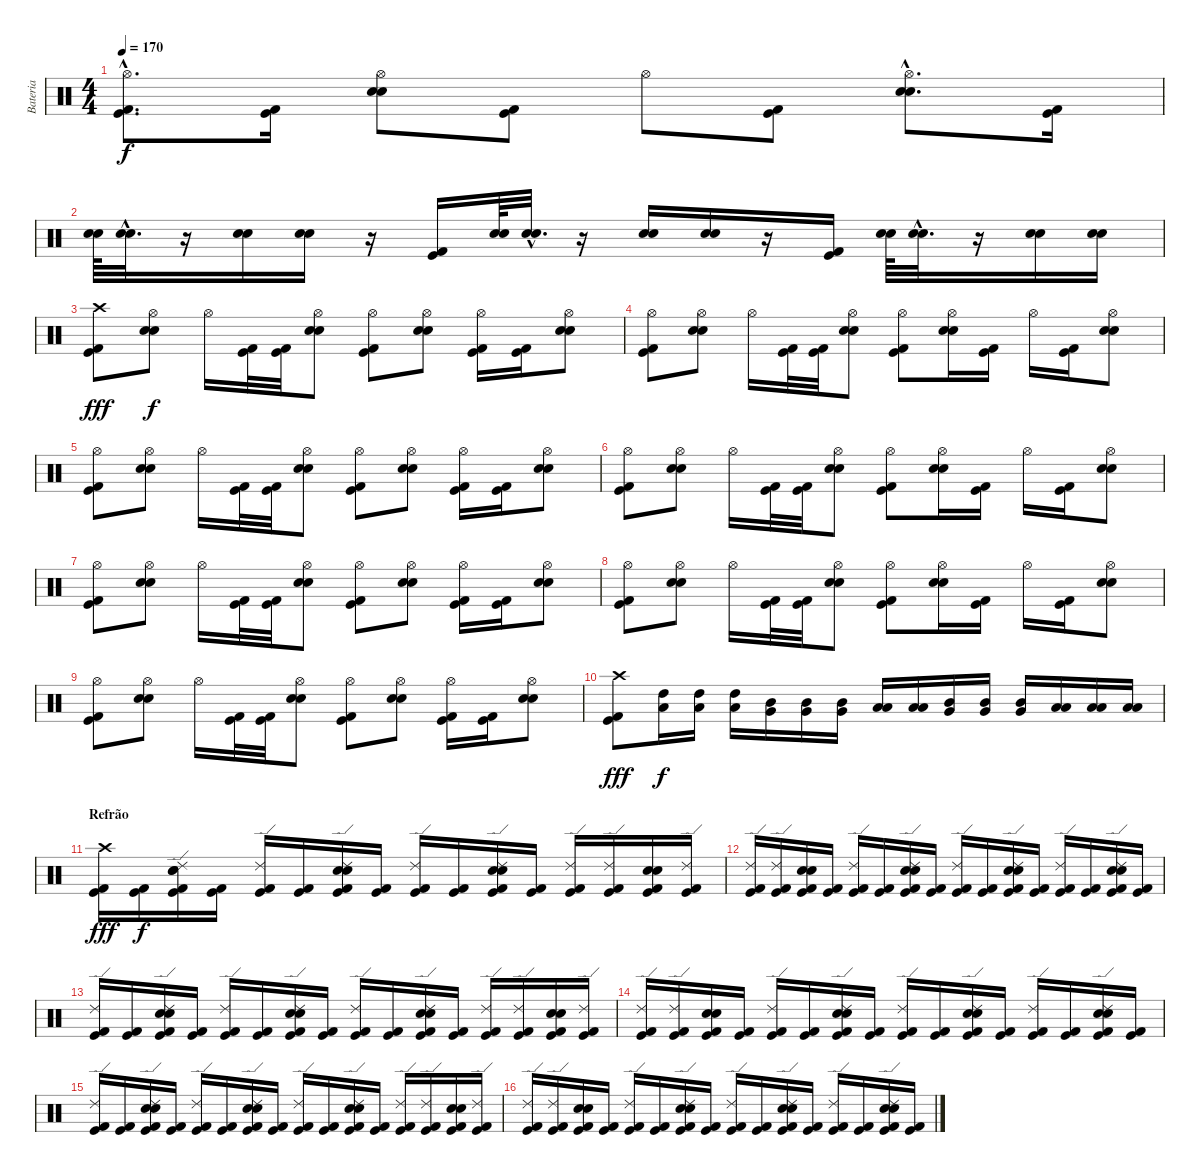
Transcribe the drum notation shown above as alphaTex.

\track ("Bateria" "Bateria") {instrument percussion}
\staff {score}
\articulation defaults
\ts (4 4)
\tempo 170
\clef neutral
\ks c
("Hi-Hat (open)"{hac} "Kick (hit) 2"{hac} "Kick (hit)"{hac}).8{d dy f} ("Kick (hit) 2" "Kick (hit)").16 ("Hi-Hat (open)" "Electric Snare (hit)" "Snare (hit) 2").8 ("Kick (hit) 2" "Kick (hit)").8 "Hi-Hat (open)".8 ("Kick (hit) 2" "Kick (hit)").8 ("Hi-Hat (open)"{hac} "Electric Snare (hit)"{hac} "Snare (hit) 2"{hac}).8{d} ("Kick (hit) 2" "Kick (hit)").16 |
("Electric Snare (hit)" "Snare (hit) 2").64 ("Electric Snare (hit)"{hac} "Snare (hit) 2"{hac}).32{d} r.16 ("Electric Snare (hit)" "Snare (hit) 2").16 ("Electric Snare (hit)" "Snare (hit) 2").16 r.16 ("Kick (hit) 2" "Kick (hit)").16 ("Electric Snare (hit)" "Snare (hit) 2").64 ("Electric Snare (hit)"{hac} "Snare (hit) 2"{hac}).32{d} r.16 ("Electric Snare (hit)" "Snare (hit) 2").16 ("Electric Snare (hit)" "Snare (hit) 2").16 r.16 ("Kick (hit) 2" "Kick (hit)").16 ("Electric Snare (hit)" "Snare (hit) 2").64 ("Electric Snare (hit)"{hac} "Snare (hit) 2"{hac}).32{d} r.16 ("Electric Snare (hit)" "Snare (hit) 2").16 ("Electric Snare (hit)" "Snare (hit) 2").16 |
("Crash high (hit)" "Kick (hit) 2" "Kick (hit)").8{dy fff} ("Hi-Hat (open)" "Electric Snare (hit)" "Snare (hit) 2").8{dy f} "Hi-Hat (open)".16 ("Kick (hit) 2" "Kick (hit)").32 ("Kick (hit) 2" "Kick (hit)").32 ("Hi-Hat (open)" "Electric Snare (hit)" "Snare (hit) 2").8 ("Hi-Hat (open)" "Kick (hit) 2" "Kick (hit)").8 ("Hi-Hat (open)" "Electric Snare (hit)" "Snare (hit) 2").8 ("Hi-Hat (open)" "Kick (hit) 2" "Kick (hit)").16 ("Kick (hit) 2" "Kick (hit)").16 ("Hi-Hat (open)" "Electric Snare (hit)" "Snare (hit) 2").8 |
("Hi-Hat (open)" "Kick (hit) 2" "Kick (hit)").8 ("Hi-Hat (open)" "Electric Snare (hit)" "Snare (hit) 2").8 "Hi-Hat (open)".16 ("Kick (hit) 2" "Kick (hit)").32 ("Kick (hit) 2" "Kick (hit)").32 ("Hi-Hat (open)" "Electric Snare (hit)" "Snare (hit) 2").8 ("Hi-Hat (open)" "Kick (hit) 2" "Kick (hit)").8 ("Hi-Hat (open)" "Electric Snare (hit)" "Snare (hit) 2").16 ("Kick (hit) 2" "Kick (hit)").16 "Hi-Hat (open)".16 ("Kick (hit) 2" "Kick (hit)").16 ("Hi-Hat (open)" "Electric Snare (hit)" "Snare (hit) 2").8 |
("Hi-Hat (open)" "Kick (hit) 2" "Kick (hit)").8 ("Hi-Hat (open)" "Electric Snare (hit)" "Snare (hit) 2").8 "Hi-Hat (open)".16 ("Kick (hit) 2" "Kick (hit)").32 ("Kick (hit) 2" "Kick (hit)").32 ("Hi-Hat (open)" "Electric Snare (hit)" "Snare (hit) 2").8 ("Hi-Hat (open)" "Kick (hit) 2" "Kick (hit)").8 ("Hi-Hat (open)" "Electric Snare (hit)" "Snare (hit) 2").8 ("Hi-Hat (open)" "Kick (hit) 2" "Kick (hit)").16 ("Kick (hit) 2" "Kick (hit)").16 ("Hi-Hat (open)" "Electric Snare (hit)" "Snare (hit) 2").8 |
("Hi-Hat (open)" "Kick (hit) 2" "Kick (hit)").8 ("Hi-Hat (open)" "Electric Snare (hit)" "Snare (hit) 2").8 "Hi-Hat (open)".16 ("Kick (hit) 2" "Kick (hit)").32 ("Kick (hit) 2" "Kick (hit)").32 ("Hi-Hat (open)" "Electric Snare (hit)" "Snare (hit) 2").8 ("Hi-Hat (open)" "Kick (hit) 2" "Kick (hit)").8 ("Hi-Hat (open)" "Electric Snare (hit)" "Snare (hit) 2").16 ("Kick (hit) 2" "Kick (hit)").16 "Hi-Hat (open)".16 ("Kick (hit) 2" "Kick (hit)").16 ("Hi-Hat (open)" "Electric Snare (hit)" "Snare (hit) 2").8 |
("Hi-Hat (open)" "Kick (hit) 2" "Kick (hit)").8 ("Hi-Hat (open)" "Electric Snare (hit)" "Snare (hit) 2").8 "Hi-Hat (open)".16 ("Kick (hit) 2" "Kick (hit)").32 ("Kick (hit) 2" "Kick (hit)").32 ("Hi-Hat (open)" "Electric Snare (hit)" "Snare (hit) 2").8 ("Hi-Hat (open)" "Kick (hit) 2" "Kick (hit)").8 ("Hi-Hat (open)" "Electric Snare (hit)" "Snare (hit) 2").8 ("Hi-Hat (open)" "Kick (hit) 2" "Kick (hit)").16 ("Kick (hit) 2" "Kick (hit)").16 ("Hi-Hat (open)" "Electric Snare (hit)" "Snare (hit) 2").8 |
("Hi-Hat (open)" "Kick (hit) 2" "Kick (hit)").8 ("Hi-Hat (open)" "Electric Snare (hit)" "Snare (hit) 2").8 "Hi-Hat (open)".16 ("Kick (hit) 2" "Kick (hit)").32 ("Kick (hit) 2" "Kick (hit)").32 ("Hi-Hat (open)" "Electric Snare (hit)" "Snare (hit) 2").8 ("Hi-Hat (open)" "Kick (hit) 2" "Kick (hit)").8 ("Hi-Hat (open)" "Electric Snare (hit)" "Snare (hit) 2").16 ("Kick (hit) 2" "Kick (hit)").16 "Hi-Hat (open)".16 ("Kick (hit) 2" "Kick (hit)").16 ("Hi-Hat (open)" "Electric Snare (hit)" "Snare (hit) 2").8 |
("Hi-Hat (open)" "Kick (hit) 2" "Kick (hit)").8 ("Hi-Hat (open)" "Electric Snare (hit)" "Snare (hit) 2").8 "Hi-Hat (open)".16 ("Kick (hit) 2" "Kick (hit)").32 ("Kick (hit) 2" "Kick (hit)").32 ("Hi-Hat (open)" "Electric Snare (hit)" "Snare (hit) 2").8 ("Hi-Hat (open)" "Kick (hit) 2" "Kick (hit)").8 ("Hi-Hat (open)" "Electric Snare (hit)" "Snare (hit) 2").8 ("Hi-Hat (open)" "Kick (hit) 2" "Kick (hit)").16 ("Kick (hit) 2" "Kick (hit)").16 ("Hi-Hat (open)" "Electric Snare (hit)" "Snare (hit) 2").8 |
("Crash high (hit)" "Kick (hit) 2" "Kick (hit)").8{dy fff} ("High Tom (hit)" "Low Tom (hit)").16{dy f} ("High Tom (hit)" "Low Tom (hit)").16 ("High Tom (hit)" "Low Tom (hit)").16 ("Mid Tom (hit)" "Very Low Tom (hit)").16 ("Mid Tom (hit)" "Very Low Tom (hit)").16 ("Mid Tom (hit)" "Very Low Tom (hit)").16 ("Low Tom (hit)" "Low Floor Tom (hit)").16 ("Low Tom (hit)" "Low Floor Tom (hit)").16 ("Mid Tom (hit)" "Very Low Tom (hit)").16 ("Mid Tom (hit)" "Very Low Tom (hit)").16 ("Mid Tom (hit)" "Very Low Tom (hit)").16 ("Low Tom (hit)" "Low Floor Tom (hit)").16 ("Low Tom (hit)" "Low Floor Tom (hit)").16 ("Low Tom (hit)" "Low Floor Tom (hit)").16 |
\section ("" "Refrão")
("Crash high (hit)" "Kick (hit) 2" "Kick (hit)").16{dy fff} ("Kick (hit) 2" "Kick (hit)").16{dy f} ("Ride (edge) 2" "Electric Snare (hit)" "Snare (hit) 2" "Kick (hit) 2" "Kick (hit)").16 ("Kick (hit) 2" "Kick (hit)").16 ("Ride (edge) 2" "Kick (hit) 2" "Kick (hit)").16 ("Kick (hit) 2" "Kick (hit)").16 ("Ride (edge) 2" "Electric Snare (hit)" "Snare (hit) 2" "Kick (hit) 2" "Kick (hit)").16 ("Kick (hit) 2" "Kick (hit)").16 ("Ride (edge) 2" "Kick (hit) 2" "Kick (hit)").16 ("Kick (hit) 2" "Kick (hit)").16 ("Ride (edge) 2" "Electric Snare (hit)" "Snare (hit) 2" "Kick (hit) 2" "Kick (hit)").16 ("Kick (hit) 2" "Kick (hit)").16 ("Ride (edge) 2" "Kick (hit) 2" "Kick (hit)").16 ("Ride (edge) 2" "Kick (hit) 2" "Kick (hit)").16 ("Electric Snare (hit)" "Snare (hit) 2" "Kick (hit) 2" "Kick (hit)").16 ("Ride (edge) 2" "Kick (hit) 2" "Kick (hit)").16 |
("Ride (edge) 2" "Kick (hit) 2" "Kick (hit)").16 ("Ride (edge) 2" "Kick (hit) 2" "Kick (hit)").16 ("Electric Snare (hit)" "Snare (hit) 2" "Kick (hit) 2" "Kick (hit)").16 ("Kick (hit) 2" "Kick (hit)").16 ("Ride (edge) 2" "Kick (hit) 2" "Kick (hit)").16 ("Kick (hit) 2" "Kick (hit)").16 ("Ride (edge) 2" "Electric Snare (hit)" "Snare (hit) 2" "Kick (hit) 2" "Kick (hit)").16 ("Kick (hit) 2" "Kick (hit)").16 ("Ride (edge) 2" "Kick (hit) 2" "Kick (hit)").16 ("Kick (hit) 2" "Kick (hit)").16 ("Ride (edge) 2" "Electric Snare (hit)" "Snare (hit) 2" "Kick (hit) 2" "Kick (hit)").16 ("Kick (hit) 2" "Kick (hit)").16 ("Ride (edge) 2" "Kick (hit) 2" "Kick (hit)").16 ("Kick (hit) 2" "Kick (hit)").16 ("Ride (edge) 2" "Electric Snare (hit)" "Snare (hit) 2" "Kick (hit) 2" "Kick (hit)").16 ("Kick (hit) 2" "Kick (hit)").16 |
("Ride (edge) 2" "Kick (hit) 2" "Kick (hit)").16 ("Kick (hit) 2" "Kick (hit)").16 ("Ride (edge) 2" "Electric Snare (hit)" "Snare (hit) 2" "Kick (hit) 2" "Kick (hit)").16 ("Kick (hit) 2" "Kick (hit)").16 ("Ride (edge) 2" "Kick (hit) 2" "Kick (hit)").16 ("Kick (hit) 2" "Kick (hit)").16 ("Ride (edge) 2" "Electric Snare (hit)" "Snare (hit) 2" "Kick (hit) 2" "Kick (hit)").16 ("Kick (hit) 2" "Kick (hit)").16 ("Ride (edge) 2" "Kick (hit) 2" "Kick (hit)").16 ("Kick (hit) 2" "Kick (hit)").16 ("Ride (edge) 2" "Electric Snare (hit)" "Snare (hit) 2" "Kick (hit) 2" "Kick (hit)").16 ("Kick (hit) 2" "Kick (hit)").16 ("Ride (edge) 2" "Kick (hit) 2" "Kick (hit)").16 ("Ride (edge) 2" "Kick (hit) 2" "Kick (hit)").16 ("Electric Snare (hit)" "Snare (hit) 2" "Kick (hit) 2" "Kick (hit)").16 ("Ride (edge) 2" "Kick (hit) 2" "Kick (hit)").16 |
("Ride (edge) 2" "Kick (hit) 2" "Kick (hit)").16 ("Ride (edge) 2" "Kick (hit) 2" "Kick (hit)").16 ("Electric Snare (hit)" "Snare (hit) 2" "Kick (hit) 2" "Kick (hit)").16 ("Kick (hit) 2" "Kick (hit)").16 ("Ride (edge) 2" "Kick (hit) 2" "Kick (hit)").16 ("Kick (hit) 2" "Kick (hit)").16 ("Ride (edge) 2" "Electric Snare (hit)" "Snare (hit) 2" "Kick (hit) 2" "Kick (hit)").16 ("Kick (hit) 2" "Kick (hit)").16 ("Ride (edge) 2" "Kick (hit) 2" "Kick (hit)").16 ("Kick (hit) 2" "Kick (hit)").16 ("Ride (edge) 2" "Electric Snare (hit)" "Snare (hit) 2" "Kick (hit) 2" "Kick (hit)").16 ("Kick (hit) 2" "Kick (hit)").16 ("Ride (edge) 2" "Kick (hit) 2" "Kick (hit)").16 ("Kick (hit) 2" "Kick (hit)").16 ("Ride (edge) 2" "Electric Snare (hit)" "Snare (hit) 2" "Kick (hit) 2" "Kick (hit)").16 ("Kick (hit) 2" "Kick (hit)").16 |
("Ride (edge) 2" "Kick (hit) 2" "Kick (hit)").16 ("Kick (hit) 2" "Kick (hit)").16 ("Ride (edge) 2" "Electric Snare (hit)" "Snare (hit) 2" "Kick (hit) 2" "Kick (hit)").16 ("Kick (hit) 2" "Kick (hit)").16 ("Ride (edge) 2" "Kick (hit) 2" "Kick (hit)").16 ("Kick (hit) 2" "Kick (hit)").16 ("Ride (edge) 2" "Electric Snare (hit)" "Snare (hit) 2" "Kick (hit) 2" "Kick (hit)").16 ("Kick (hit) 2" "Kick (hit)").16 ("Ride (edge) 2" "Kick (hit) 2" "Kick (hit)").16 ("Kick (hit) 2" "Kick (hit)").16 ("Ride (edge) 2" "Electric Snare (hit)" "Snare (hit) 2" "Kick (hit) 2" "Kick (hit)").16 ("Kick (hit) 2" "Kick (hit)").16 ("Ride (edge) 2" "Kick (hit) 2" "Kick (hit)").16 ("Ride (edge) 2" "Kick (hit) 2" "Kick (hit)").16 ("Electric Snare (hit)" "Snare (hit) 2" "Kick (hit) 2" "Kick (hit)").16 ("Ride (edge) 2" "Kick (hit) 2" "Kick (hit)").16 |
("Ride (edge) 2" "Kick (hit) 2" "Kick (hit)").16 ("Ride (edge) 2" "Kick (hit) 2" "Kick (hit)").16 ("Electric Snare (hit)" "Snare (hit) 2" "Kick (hit) 2" "Kick (hit)").16 ("Kick (hit) 2" "Kick (hit)").16 ("Ride (edge) 2" "Kick (hit) 2" "Kick (hit)").16 ("Kick (hit) 2" "Kick (hit)").16 ("Ride (edge) 2" "Electric Snare (hit)" "Snare (hit) 2" "Kick (hit) 2" "Kick (hit)").16 ("Kick (hit) 2" "Kick (hit)").16 ("Ride (edge) 2" "Kick (hit) 2" "Kick (hit)").16 ("Kick (hit) 2" "Kick (hit)").16 ("Ride (edge) 2" "Electric Snare (hit)" "Snare (hit) 2" "Kick (hit) 2" "Kick (hit)").16 ("Kick (hit) 2" "Kick (hit)").16 ("Ride (edge) 2" "Kick (hit) 2" "Kick (hit)").16 ("Kick (hit) 2" "Kick (hit)").16 ("Ride (edge) 2" "Electric Snare (hit)" "Snare (hit) 2" "Kick (hit) 2" "Kick (hit)").16 ("Kick (hit) 2" "Kick (hit)").16
